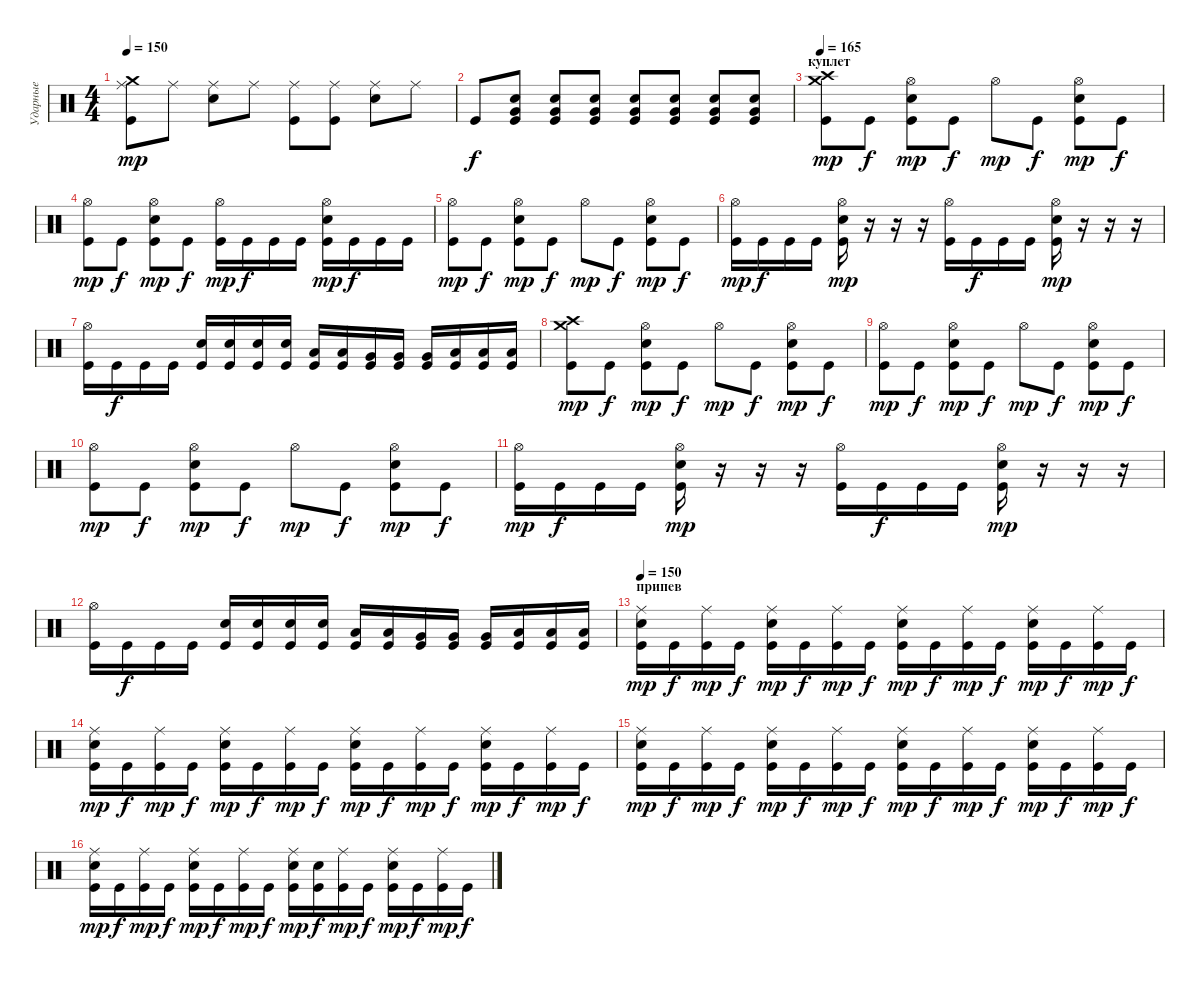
\track ("Ударные" "Ударные") {instrument percussion}
\staff {score}
\articulation defaults
\ts (4 4)
\tempo 150
\clef neutral
\ks c
("Crash medium (hit)" "Ride (middle)" "Kick (hit)").8{dy mp} "Ride (middle)".8 ("Ride (middle)" "Electric Snare (hit)").8 "Ride (middle)".8 ("Ride (middle)" "Kick (hit)").8 ("Ride (middle)" "Kick (hit)").8 ("Ride (middle)" "Electric Snare (hit)").8 "Ride (middle)".8 |
"Kick (hit)".8{dy f} ("Very Low Tom (hit)" "Electric Snare (hit)" "Kick (hit)").8 ("Very Low Tom (hit)" "Electric Snare (hit)" "Kick (hit)").8 ("Very Low Tom (hit)" "Electric Snare (hit)" "Kick (hit)").8 ("Very Low Tom (hit)" "Electric Snare (hit)" "Kick (hit)").8 ("Very Low Tom (hit)" "Electric Snare (hit)" "Kick (hit)").8 ("Very Low Tom (hit)" "Electric Snare (hit)" "Kick (hit)").8 ("Very Low Tom (hit)" "Electric Snare (hit)" "Kick (hit)").8 |
\section ("" "куплет")
\tempo 165
("Crash medium (hit)" "Crash high (hit)" "Kick (hit)").8{dy mp} "Kick (hit)".8{dy f} ("Hi-Hat (open)" "Electric Snare (hit)" "Kick (hit)").8{dy mp} "Kick (hit)".8{dy f} "Hi-Hat (open)".8{dy mp} "Kick (hit)".8{dy f} ("Hi-Hat (open)" "Electric Snare (hit)" "Kick (hit)").8{dy mp} "Kick (hit)".8{dy f} |
("Hi-Hat (open)" "Kick (hit)").8{dy mp} "Kick (hit)".8{dy f} ("Hi-Hat (open)" "Electric Snare (hit)" "Kick (hit)").8{dy mp} "Kick (hit)".8{dy f} ("Hi-Hat (open)" "Kick (hit)").16{dy mp} "Kick (hit)".16{dy f} "Kick (hit)".16 "Kick (hit)".16 ("Hi-Hat (open)" "Electric Snare (hit)" "Kick (hit)").16{dy mp} "Kick (hit)".16{dy f} "Kick (hit)".16 "Kick (hit)".16 |
("Hi-Hat (open)" "Kick (hit)").8{dy mp} "Kick (hit)".8{dy f} ("Hi-Hat (open)" "Electric Snare (hit)" "Kick (hit)").8{dy mp} "Kick (hit)".8{dy f} "Hi-Hat (open)".8{dy mp} "Kick (hit)".8{dy f} ("Hi-Hat (open)" "Electric Snare (hit)" "Kick (hit)").8{dy mp} "Kick (hit)".8{dy f} |
("Hi-Hat (open)" "Kick (hit)").16{dy mp} "Kick (hit)".16{dy f} "Kick (hit)".16 "Kick (hit)".16 ("Hi-Hat (open)" "Electric Snare (hit)" "Kick (hit)").16{dy mp} r.16 r.16 r.16 ("Hi-Hat (open)" "Kick (hit)").16 "Kick (hit)".16{dy f} "Kick (hit)".16 "Kick (hit)".16 ("Hi-Hat (open)" "Electric Snare (hit)" "Kick (hit)").16{dy mp} r.16 r.16 r.16 |
("Hi-Hat (open)" "Kick (hit)").16 "Kick (hit)".16{dy f} "Kick (hit)".16 "Kick (hit)".16 ("Electric Snare (hit)" "Kick (hit)").16 ("Electric Snare (hit)" "Kick (hit)").16 ("Electric Snare (hit)" "Kick (hit)").16 ("Electric Snare (hit)" "Kick (hit)").16 ("Low Tom (hit)" "Kick (hit)").16 ("Low Tom (hit)" "Kick (hit)").16 ("Very Low Tom (hit)" "Kick (hit)").16 ("Very Low Tom (hit)" "Kick (hit)").16 ("Very Low Tom (hit)" "Kick (hit)").16 ("Low Floor Tom (hit)" "Kick (hit)").16 ("Low Floor Tom (hit)" "Kick (hit)").16 ("Low Floor Tom (hit)" "Kick (hit)").16 |
("Crash medium (hit)" "Crash high (hit)" "Kick (hit)").8{dy mp} "Kick (hit)".8{dy f} ("Hi-Hat (open)" "Electric Snare (hit)" "Kick (hit)").8{dy mp} "Kick (hit)".8{dy f} "Hi-Hat (open)".8{dy mp} "Kick (hit)".8{dy f} ("Hi-Hat (open)" "Electric Snare (hit)" "Kick (hit)").8{dy mp} "Kick (hit)".8{dy f} |
("Hi-Hat (open)" "Kick (hit)").8{dy mp} "Kick (hit)".8{dy f} ("Hi-Hat (open)" "Electric Snare (hit)" "Kick (hit)").8{dy mp} "Kick (hit)".8{dy f} "Hi-Hat (open)".8{dy mp} "Kick (hit)".8{dy f} ("Hi-Hat (open)" "Electric Snare (hit)" "Kick (hit)").8{dy mp} "Kick (hit)".8{dy f} |
("Hi-Hat (open)" "Kick (hit)").8{dy mp} "Kick (hit)".8{dy f} ("Hi-Hat (open)" "Electric Snare (hit)" "Kick (hit)").8{dy mp} "Kick (hit)".8{dy f} "Hi-Hat (open)".8{dy mp} "Kick (hit)".8{dy f} ("Hi-Hat (open)" "Electric Snare (hit)" "Kick (hit)").8{dy mp} "Kick (hit)".8{dy f} |
("Hi-Hat (open)" "Kick (hit)").16{dy mp} "Kick (hit)".16{dy f} "Kick (hit)".16 "Kick (hit)".16 ("Hi-Hat (open)" "Electric Snare (hit)" "Kick (hit)").16{dy mp} r.16 r.16 r.16 ("Hi-Hat (open)" "Kick (hit)").16 "Kick (hit)".16{dy f} "Kick (hit)".16 "Kick (hit)".16 ("Hi-Hat (open)" "Electric Snare (hit)" "Kick (hit)").16{dy mp} r.16 r.16 r.16 |
("Hi-Hat (open)" "Kick (hit)").16 "Kick (hit)".16{dy f} "Kick (hit)".16 "Kick (hit)".16 ("Electric Snare (hit)" "Kick (hit)").16 ("Electric Snare (hit)" "Kick (hit)").16 ("Electric Snare (hit)" "Kick (hit)").16 ("Electric Snare (hit)" "Kick (hit)").16 ("Low Tom (hit)" "Kick (hit)").16 ("Low Tom (hit)" "Kick (hit)").16 ("Very Low Tom (hit)" "Kick (hit)").16 ("Very Low Tom (hit)" "Kick (hit)").16 ("Very Low Tom (hit)" "Kick (hit)").16 ("Low Floor Tom (hit)" "Kick (hit)").16 ("Low Floor Tom (hit)" "Kick (hit)").16 ("Low Floor Tom (hit)" "Kick (hit)").16 |
\section ("" "припев")
\tempo 150
("Ride (middle)" "Electric Snare (hit)" "Kick (hit)").16{dy mp} "Kick (hit)".16{dy f} ("Ride (middle)" "Kick (hit)").16{dy mp} "Kick (hit)".16{dy f} ("Ride (middle)" "Electric Snare (hit)" "Kick (hit)").16{dy mp} "Kick (hit)".16{dy f} ("Ride (middle)" "Kick (hit)").16{dy mp} "Kick (hit)".16{dy f} ("Ride (middle)" "Electric Snare (hit)" "Kick (hit)").16{dy mp} "Kick (hit)".16{dy f} ("Ride (middle)" "Kick (hit)").16{dy mp} "Kick (hit)".16{dy f} ("Ride (middle)" "Electric Snare (hit)" "Kick (hit)").16{dy mp} "Kick (hit)".16{dy f} ("Ride (middle)" "Kick (hit)").16{dy mp} "Kick (hit)".16{dy f} |
("Ride (middle)" "Electric Snare (hit)" "Kick (hit)").16{dy mp} "Kick (hit)".16{dy f} ("Ride (middle)" "Kick (hit)").16{dy mp} "Kick (hit)".16{dy f} ("Ride (middle)" "Electric Snare (hit)" "Kick (hit)").16{dy mp} "Kick (hit)".16{dy f} ("Ride (middle)" "Kick (hit)").16{dy mp} "Kick (hit)".16{dy f} ("Ride (middle)" "Electric Snare (hit)" "Kick (hit)").16{dy mp} "Kick (hit)".16{dy f} ("Ride (middle)" "Kick (hit)").16{dy mp} "Kick (hit)".16{dy f} ("Ride (middle)" "Electric Snare (hit)" "Kick (hit)").16{dy mp} "Kick (hit)".16{dy f} ("Ride (middle)" "Kick (hit)").16{dy mp} "Kick (hit)".16{dy f} |
("Ride (middle)" "Electric Snare (hit)" "Kick (hit)").16{dy mp} "Kick (hit)".16{dy f} ("Ride (middle)" "Kick (hit)").16{dy mp} "Kick (hit)".16{dy f} ("Ride (middle)" "Electric Snare (hit)" "Kick (hit)").16{dy mp} "Kick (hit)".16{dy f} ("Ride (middle)" "Kick (hit)").16{dy mp} "Kick (hit)".16{dy f} ("Ride (middle)" "Electric Snare (hit)" "Kick (hit)").16{dy mp} "Kick (hit)".16{dy f} ("Ride (middle)" "Kick (hit)").16{dy mp} "Kick (hit)".16{dy f} ("Ride (middle)" "Electric Snare (hit)" "Kick (hit)").16{dy mp} "Kick (hit)".16{dy f} ("Ride (middle)" "Kick (hit)").16{dy mp} "Kick (hit)".16{dy f} |
("Ride (middle)" "Electric Snare (hit)" "Kick (hit)").16{dy mp} "Kick (hit)".16{dy f} ("Ride (middle)" "Kick (hit)").16{dy mp} "Kick (hit)".16{dy f} ("Ride (middle)" "Electric Snare (hit)" "Kick (hit)").16{dy mp} "Kick (hit)".16{dy f} ("Ride (middle)" "Kick (hit)").16{dy mp} "Kick (hit)".16{dy f} ("Ride (middle)" "Electric Snare (hit)" "Kick (hit)").16{dy mp} ("Electric Snare (hit)" "Kick (hit)").16{dy f} ("Ride (middle)" "Kick (hit)").16{dy mp} "Kick (hit)".16{dy f} ("Ride (middle)" "Electric Snare (hit)" "Kick (hit)").16{dy mp} "Kick (hit)".16{dy f} ("Ride (middle)" "Kick (hit)").16{dy mp} "Kick (hit)".16{dy f}
